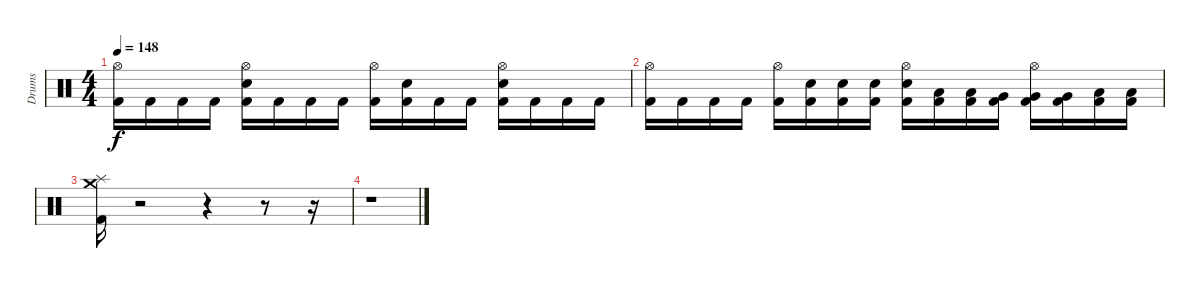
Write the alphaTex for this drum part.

\track ("Drums" "Drums") {instrument percussion}
\staff {score}
\articulation defaults
\ts (4 4)
\tempo 148
\clef neutral
\ks c
("Hi-Hat (open)" "Kick (hit) 2").16{dy f} "Kick (hit) 2".16 "Kick (hit) 2".16 "Kick (hit) 2".16 ("Hi-Hat (open)" "Kick (hit) 2" "Snare (hit) 2").16 "Kick (hit) 2".16 "Kick (hit) 2".16 "Kick (hit) 2".16 ("Hi-Hat (open)" "Kick (hit) 2").16 ("Kick (hit) 2" "Snare (hit) 2").16 "Kick (hit) 2".16 "Kick (hit) 2".16 ("Hi-Hat (open)" "Kick (hit) 2" "Snare (hit) 2").16 "Kick (hit) 2".16 "Kick (hit) 2".16 "Kick (hit) 2".16 |
("Hi-Hat (open)" "Kick (hit) 2").16 "Kick (hit) 2".16 "Kick (hit) 2".16 "Kick (hit) 2".16 ("Hi-Hat (open)" "Kick (hit) 2").16 ("Kick (hit) 2" "Snare (hit) 2").16 ("Kick (hit) 2" "Snare (hit) 2").16 ("Kick (hit) 2" "Snare (hit) 2").16 ("Hi-Hat (open)" "Kick (hit) 2" "Snare (hit) 2").16 ("Low Tom (hit)" "Kick (hit) 2").16 ("Low Tom (hit)" "Kick (hit) 2").16 ("Very Low Tom (hit)" "Kick (hit) 2").16 ("Very Low Tom (hit)" "Hi-Hat (open)" "Kick (hit) 2").16 ("Very Low Tom (hit)" "Kick (hit) 2").16 ("Low Floor Tom (hit)" "Kick (hit) 2").16 ("Low Floor Tom (hit)" "Kick (hit) 2").16 |
("Splash (hit)" "Crash medium (hit)" "Kick (hit) 2").16 r.2 r.4 r.8 r.16 |
r.1
